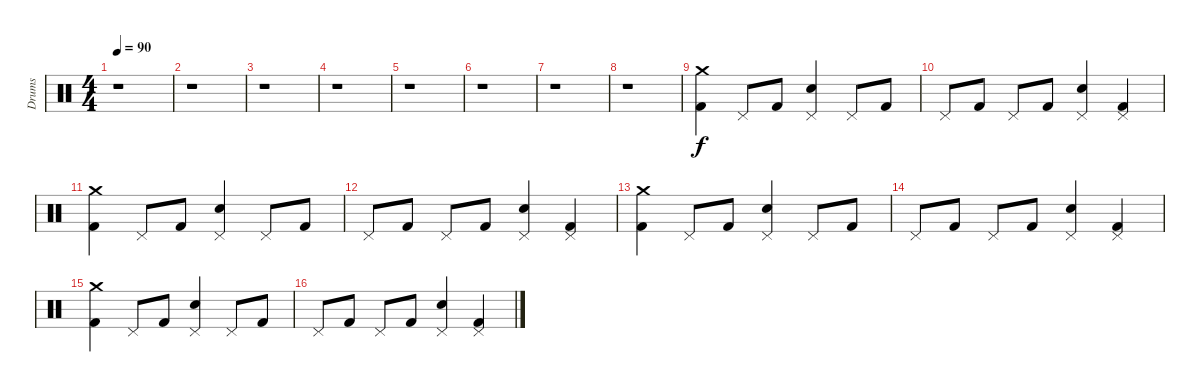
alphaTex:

\track ("Drums" "Drums") {instrument percussion}
\staff {score}
\articulation defaults
\ts (4 4)
\section ("" "")
\tempo 90
\clef neutral
\ks c
r.1{dy f} |
r.1 |
r.1 |
r.1 |
r.1 |
r.1 |
r.1 |
r.1 |
("Crash medium (hit)" "Kick (hit) 2").4{volume 16} "Pedal Hi-Hat (hit)".8 "Kick (hit) 2".8 ("Pedal Hi-Hat (hit)" "Electric Snare (hit)").4 "Pedal Hi-Hat (hit)".8 "Kick (hit) 2".8 |
"Pedal Hi-Hat (hit)".8 "Kick (hit) 2".8 "Pedal Hi-Hat (hit)".8 "Kick (hit) 2".8 ("Pedal Hi-Hat (hit)" "Electric Snare (hit)").4 ("Pedal Hi-Hat (hit)" "Kick (hit) 2").4 |
("Crash medium (hit)" "Kick (hit) 2").4 "Pedal Hi-Hat (hit)".8 "Kick (hit) 2".8 ("Pedal Hi-Hat (hit)" "Electric Snare (hit)").4 "Pedal Hi-Hat (hit)".8 "Kick (hit) 2".8 |
"Pedal Hi-Hat (hit)".8 "Kick (hit) 2".8 "Pedal Hi-Hat (hit)".8 "Kick (hit) 2".8 ("Pedal Hi-Hat (hit)" "Electric Snare (hit)").4 ("Pedal Hi-Hat (hit)" "Kick (hit) 2").4 |
("Crash medium (hit)" "Kick (hit) 2").4 "Pedal Hi-Hat (hit)".8 "Kick (hit) 2".8 ("Pedal Hi-Hat (hit)" "Electric Snare (hit)").4 "Pedal Hi-Hat (hit)".8 "Kick (hit) 2".8 |
"Pedal Hi-Hat (hit)".8 "Kick (hit) 2".8 "Pedal Hi-Hat (hit)".8 "Kick (hit) 2".8 ("Pedal Hi-Hat (hit)" "Electric Snare (hit)").4 ("Pedal Hi-Hat (hit)" "Kick (hit) 2").4 |
("Crash medium (hit)" "Kick (hit) 2").4 "Pedal Hi-Hat (hit)".8 "Kick (hit) 2".8 ("Pedal Hi-Hat (hit)" "Electric Snare (hit)").4 "Pedal Hi-Hat (hit)".8 "Kick (hit) 2".8 |
"Pedal Hi-Hat (hit)".8 "Kick (hit) 2".8 "Pedal Hi-Hat (hit)".8 "Kick (hit) 2".8 ("Pedal Hi-Hat (hit)" "Electric Snare (hit)").4 ("Pedal Hi-Hat (hit)" "Kick (hit) 2").4
